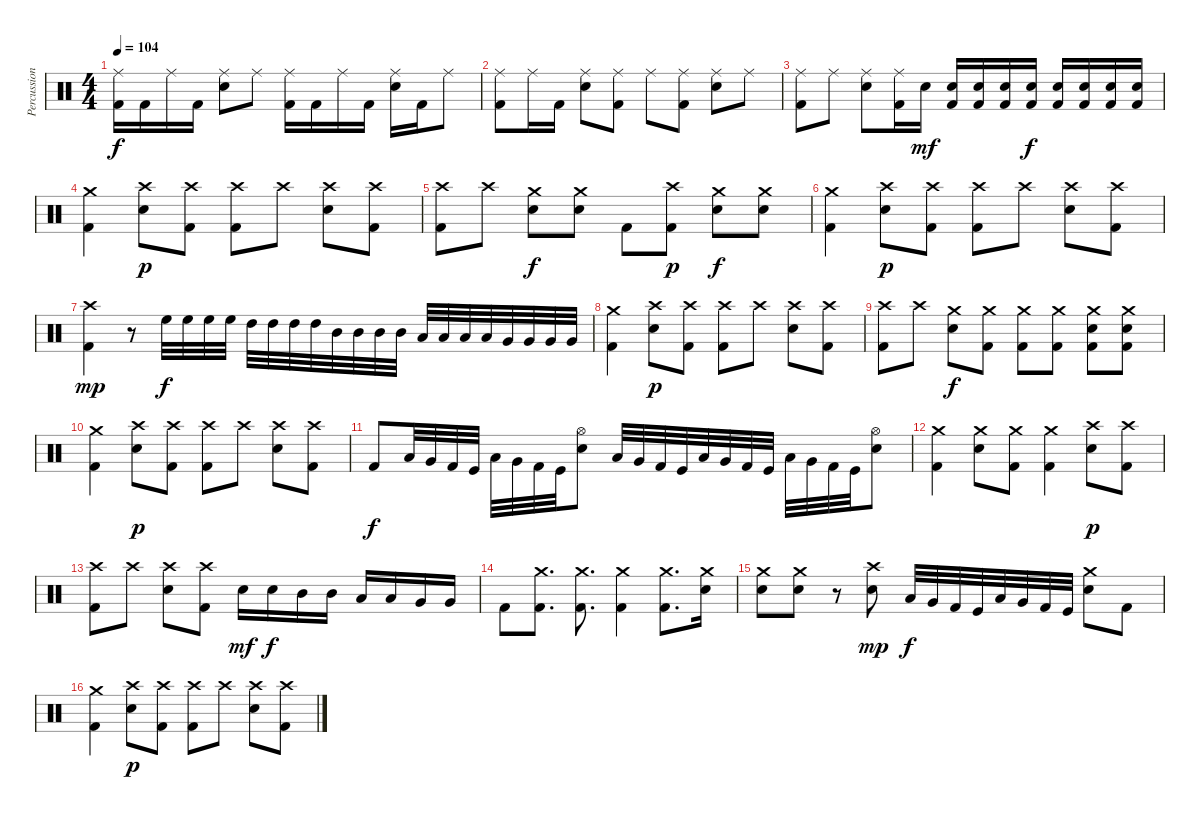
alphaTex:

\track ("Percussion" "Percussion") {instrument percussion}
\staff {score}
\articulation defaults
\ts (4 4)
\tempo 104
\clef neutral
\ks c
("Kick (hit) 2" "Ride (middle)").16{dy f} "Kick (hit) 2".16 "Ride (middle)".16 "Kick (hit) 2".16 ("Electric Snare (hit)" "Ride (middle)").8 "Ride (middle)".8 ("Kick (hit) 2" "Ride (middle)").16 "Kick (hit) 2".16 "Ride (middle)".16 "Kick (hit) 2".16 ("Electric Snare (hit)" "Ride (middle)").16 "Kick (hit) 2".16 "Ride (middle)".8 |
("Kick (hit) 2" "Ride (middle)").8 "Ride (middle)".16 "Kick (hit) 2".16 ("Electric Snare (hit)" "Ride (middle)").8 ("Kick (hit) 2" "Ride (middle)").8 "Ride (middle)".8 ("Kick (hit) 2" "Ride (middle)").8 ("Electric Snare (hit)" "Ride (middle)").8 "Ride (middle)".8 |
("Kick (hit) 2" "Ride (middle)").8 "Ride (middle)".8 ("Electric Snare (hit)" "Ride (middle)").8 ("Kick (hit) 2" "Ride (middle)").16 "Electric Snare (hit)".16{dy mf} ("Kick (hit) 2" "Electric Snare (hit)").16 ("Kick (hit) 2" "Electric Snare (hit)").16 ("Kick (hit) 2" "Electric Snare (hit)").16 ("Kick (hit) 2" "Electric Snare (hit)").16{dy f} ("Kick (hit) 2" "Electric Snare (hit)").16 ("Kick (hit) 2" "Electric Snare (hit)").16 ("Kick (hit) 2" "Electric Snare (hit)").16 ("Kick (hit) 2" "Electric Snare (hit)").16 |
("Kick (hit) 2" "Crash medium (hit)").4 ("Electric Snare (hit)" "Crash high (hit)").8{dy p} ("Kick (hit) 2" "Crash high (hit)").8 ("Kick (hit) 2" "Crash high (hit)").8 "Crash high (hit)".8 ("Electric Snare (hit)" "Crash high (hit)").8 ("Kick (hit) 2" "Crash high (hit)").8 |
("Kick (hit) 2" "Crash high (hit)").8 "Crash high (hit)".8 ("Electric Snare (hit)" "Crash medium (hit)").8{dy f} ("Electric Snare (hit)" "Crash medium (hit)").8 "Kick (hit) 2".8 ("Kick (hit) 2" "Crash high (hit)").8{dy p} ("Electric Snare (hit)" "Crash medium (hit)").8{dy f} ("Electric Snare (hit)" "Crash medium (hit)").8 |
("Kick (hit) 2" "Crash medium (hit)").4 ("Electric Snare (hit)" "Crash high (hit)").8{dy p} ("Kick (hit) 2" "Crash high (hit)").8 ("Kick (hit) 2" "Crash high (hit)").8 "Crash high (hit)".8 ("Electric Snare (hit)" "Crash high (hit)").8 ("Kick (hit) 2" "Crash high (hit)").8 |
("Kick (hit) 2" "Crash high (hit)").4{dy mp} r.8 "High Floor Tom (hit)".32{dy f} "High Floor Tom (hit)".32 "High Floor Tom (hit)".32 "High Floor Tom (hit)".32 "High Tom (hit)".32 "High Tom (hit)".32 "High Tom (hit)".32 "High Tom (hit)".32 "Mid Tom (hit)".32 "Mid Tom (hit)".32 "Mid Tom (hit)".32 "Mid Tom (hit)".32 "Low Tom (hit)".32 "Low Tom (hit)".32 "Low Tom (hit)".32 "Low Tom (hit)".32 "Very Low Tom (hit)".32 "Very Low Tom (hit)".32 "Very Low Tom (hit)".32 "Very Low Tom (hit)".32 |
("Kick (hit) 2" "Crash medium (hit)").4 ("Electric Snare (hit)" "Crash high (hit)").8{dy p} ("Kick (hit) 2" "Crash high (hit)").8 ("Kick (hit) 2" "Crash high (hit)").8 "Crash high (hit)".8 ("Electric Snare (hit)" "Crash high (hit)").8 ("Kick (hit) 2" "Crash high (hit)").8 |
("Kick (hit) 2" "Crash high (hit)").8 "Crash high (hit)".8 ("Electric Snare (hit)" "Crash medium (hit)").8{dy f} ("Kick (hit) 2" "Crash medium (hit)").8 ("Kick (hit) 2" "Crash medium (hit)").8 ("Kick (hit) 2" "Crash medium (hit)").8 ("Kick (hit) 2" "Electric Snare (hit)" "Crash medium (hit)").8 ("Kick (hit) 2" "Electric Snare (hit)" "Crash medium (hit)").8 |
("Kick (hit) 2" "Crash medium (hit)").4 ("Electric Snare (hit)" "Crash high (hit)").8{dy p} ("Kick (hit) 2" "Crash high (hit)").8 ("Kick (hit) 2" "Crash high (hit)").8 "Crash high (hit)".8 ("Electric Snare (hit)" "Crash high (hit)").8 ("Kick (hit) 2" "Crash high (hit)").8 |
"Kick (hit) 2".8{dy f} "Low Floor Tom (hit)".32 "Very Low Tom (hit)".32 "Kick (hit) 2".32 "Kick (hit)".32 "Low Floor Tom (hit)".32 "Very Low Tom (hit)".32 "Kick (hit) 2".32 "Kick (hit)".32 ("Electric Snare (hit)" "Hi-Hat (open)").8 "Low Floor Tom (hit)".32 "Very Low Tom (hit)".32 "Kick (hit) 2".32 "Kick (hit)".32 "Low Floor Tom (hit)".32 "Very Low Tom (hit)".32 "Kick (hit) 2".32 "Kick (hit)".32 "Low Floor Tom (hit)".32 "Very Low Tom (hit)".32 "Kick (hit) 2".32 "Kick (hit)".32 ("Electric Snare (hit)" "Hi-Hat (open)").8 |
("Kick (hit) 2" "Crash medium (hit)").4 ("Electric Snare (hit)" "Crash medium (hit)").8 ("Kick (hit) 2" "Crash medium (hit)").8 ("Kick (hit) 2" "Crash medium (hit)").4 ("Electric Snare (hit)" "Crash high (hit)").8{dy p} ("Kick (hit) 2" "Crash high (hit)").8 |
("Kick (hit) 2" "Crash high (hit)").8 "Crash high (hit)".8 ("Electric Snare (hit)" "Crash high (hit)").8 ("Kick (hit) 2" "Crash high (hit)").8 "Electric Snare (hit)".16{dy mf} "Electric Snare (hit)".16{dy f} "Mid Tom (hit)".16 "Mid Tom (hit)".16 "Low Tom (hit)".16 "Low Tom (hit)".16 "Very Low Tom (hit)".16 "Very Low Tom (hit)".16 |
"Kick (hit) 2".8 ("Kick (hit) 2" "Crash medium (hit)").8{d} ("Kick (hit) 2" "Crash medium (hit)").8{d} ("Kick (hit) 2" "Crash medium (hit)").4 ("Kick (hit) 2" "Crash medium (hit)").8{d} ("Electric Snare (hit)" "Crash medium (hit)").16 |
("Electric Snare (hit)" "Crash medium (hit)").8 ("Electric Snare (hit)" "Crash medium (hit)").8 r.8 ("Electric Snare (hit)" "Crash high (hit)").8{dy mp} "Low Floor Tom (hit)".32{dy f} "Very Low Tom (hit)".32 "Kick (hit) 2".32 "Kick (hit)".32 "Low Floor Tom (hit)".32 "Very Low Tom (hit)".32 "Kick (hit) 2".32 "Kick (hit)".32 ("Electric Snare (hit)" "Crash medium (hit)").8 "Kick (hit) 2".8 |
("Kick (hit) 2" "Crash medium (hit)").4 ("Electric Snare (hit)" "Crash high (hit)").8{dy p} ("Kick (hit) 2" "Crash high (hit)").8 ("Kick (hit) 2" "Crash high (hit)").8 "Crash high (hit)".8 ("Electric Snare (hit)" "Crash high (hit)").8 ("Kick (hit) 2" "Crash high (hit)").8
